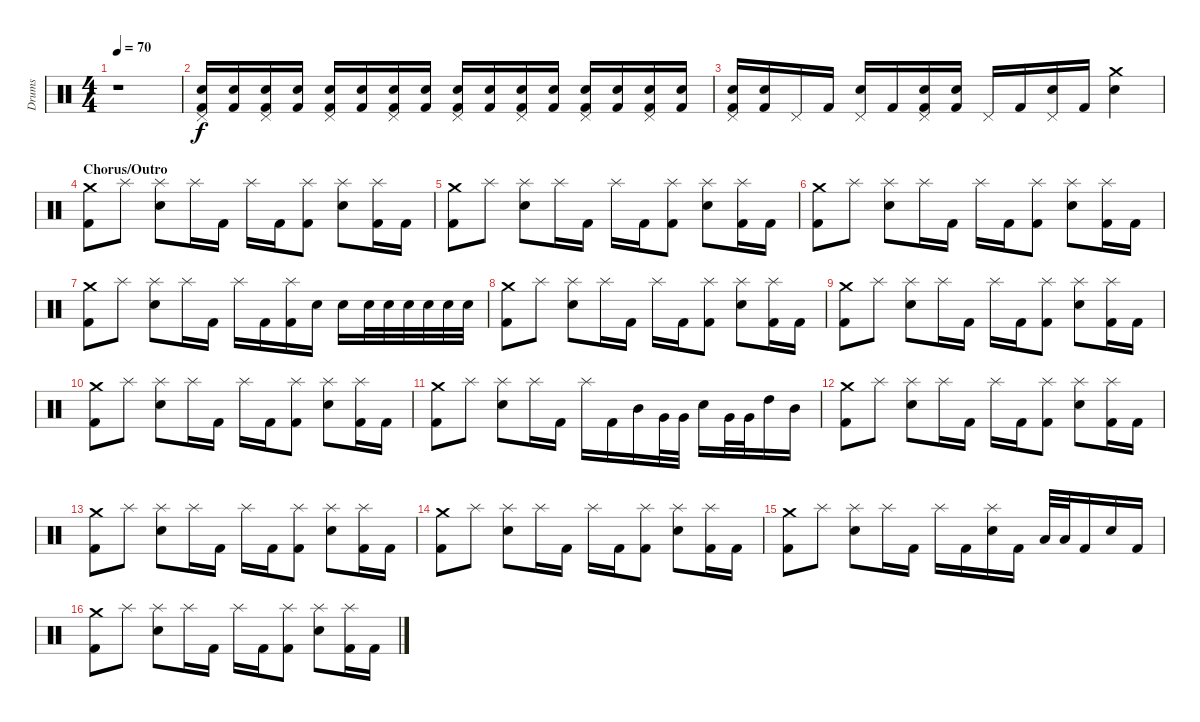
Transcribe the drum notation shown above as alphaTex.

\track ("Drums" "Drums") {instrument percussion}
\staff {score}
\articulation defaults
\ts (4 4)
\tempo 70
\clef neutral
\ks c
r.1{dy f volume 0} |
("Pedal Hi-Hat (hit)" "Electric Snare (hit)" "Kick (hit) 2").16{volume 13} ("Electric Snare (hit)" "Kick (hit) 2").16 ("Pedal Hi-Hat (hit)" "Electric Snare (hit)" "Kick (hit) 2").16 ("Electric Snare (hit)" "Kick (hit) 2").16 ("Pedal Hi-Hat (hit)" "Electric Snare (hit)" "Kick (hit) 2").16 ("Electric Snare (hit)" "Kick (hit) 2").16 ("Pedal Hi-Hat (hit)" "Electric Snare (hit)" "Kick (hit) 2").16 ("Electric Snare (hit)" "Kick (hit) 2").16 ("Pedal Hi-Hat (hit)" "Electric Snare (hit)" "Kick (hit) 2").16 ("Electric Snare (hit)" "Kick (hit) 2").16 ("Pedal Hi-Hat (hit)" "Electric Snare (hit)" "Kick (hit) 2").16 ("Electric Snare (hit)" "Kick (hit) 2").16 ("Pedal Hi-Hat (hit)" "Electric Snare (hit)" "Kick (hit) 2").16 ("Electric Snare (hit)" "Kick (hit) 2").16 ("Pedal Hi-Hat (hit)" "Electric Snare (hit)" "Kick (hit) 2").16 ("Electric Snare (hit)" "Kick (hit) 2").16 |
("Pedal Hi-Hat (hit)" "Electric Snare (hit)" "Kick (hit) 2").16 ("Electric Snare (hit)" "Kick (hit) 2").16 "Pedal Hi-Hat (hit)".16 "Kick (hit) 2".16 ("Pedal Hi-Hat (hit)" "Electric Snare (hit)").16 "Kick (hit) 2".16 ("Pedal Hi-Hat (hit)" "Electric Snare (hit)" "Kick (hit) 2").16 ("Electric Snare (hit)" "Kick (hit) 2").16 "Pedal Hi-Hat (hit)".16 "Kick (hit) 2".16 ("Pedal Hi-Hat (hit)" "Electric Snare (hit)").16 "Kick (hit) 2".16 ("Crash medium (hit)" "Electric Snare (hit)").4 |
\section ("" "Chorus/Outro")
("Crash medium (hit)" "Kick (hit) 2").8 "Splash (hit)".8 ("Splash (hit)" "Electric Snare (hit)").8 "Splash (hit)".16 "Kick (hit) 2".16 "Splash (hit)".16 "Kick (hit) 2".16 ("Splash (hit)" "Kick (hit) 2").8 ("Splash (hit)" "Electric Snare (hit)").8 ("Splash (hit)" "Kick (hit) 2").16 "Kick (hit) 2".16 |
("Crash medium (hit)" "Kick (hit) 2").8 "Splash (hit)".8 ("Splash (hit)" "Electric Snare (hit)").8 "Splash (hit)".16 "Kick (hit) 2".16 "Splash (hit)".16 "Kick (hit) 2".16 ("Splash (hit)" "Kick (hit) 2").8 ("Splash (hit)" "Electric Snare (hit)").8 ("Splash (hit)" "Kick (hit) 2").16 "Kick (hit) 2".16 |
("Crash medium (hit)" "Kick (hit) 2").8 "Splash (hit)".8 ("Splash (hit)" "Electric Snare (hit)").8 "Splash (hit)".16 "Kick (hit) 2".16 "Splash (hit)".16 "Kick (hit) 2".16 ("Splash (hit)" "Kick (hit) 2").8 ("Splash (hit)" "Electric Snare (hit)").8 ("Splash (hit)" "Kick (hit) 2").16 "Kick (hit) 2".16 |
("Crash medium (hit)" "Kick (hit) 2").8 "Splash (hit)".8 ("Splash (hit)" "Electric Snare (hit)").8 "Splash (hit)".16 "Kick (hit) 2".16 "Splash (hit)".16 "Kick (hit) 2".16 ("Splash (hit)" "Kick (hit) 2").16 "Electric Snare (hit)".16 "Electric Snare (hit)".16 "Electric Snare (hit)".32 "Electric Snare (hit)".32 "Electric Snare (hit)".32 "Electric Snare (hit)".32 "Electric Snare (hit)".32 "Electric Snare (hit)".32 |
("Crash medium (hit)" "Kick (hit) 2").8 "Splash (hit)".8 ("Splash (hit)" "Electric Snare (hit)").8 "Splash (hit)".16 "Kick (hit) 2".16 "Splash (hit)".16 "Kick (hit) 2".16 ("Splash (hit)" "Kick (hit) 2").8 ("Splash (hit)" "Electric Snare (hit)").8 ("Splash (hit)" "Kick (hit) 2").16 "Kick (hit) 2".16 |
("Crash medium (hit)" "Kick (hit) 2").8 "Splash (hit)".8 ("Splash (hit)" "Electric Snare (hit)").8 "Splash (hit)".16 "Kick (hit) 2".16 "Splash (hit)".16 "Kick (hit) 2".16 ("Splash (hit)" "Kick (hit) 2").8 ("Splash (hit)" "Electric Snare (hit)").8 ("Splash (hit)" "Kick (hit) 2").16 "Kick (hit) 2".16 |
("Crash medium (hit)" "Kick (hit) 2").8 "Splash (hit)".8 ("Splash (hit)" "Electric Snare (hit)").8 "Splash (hit)".16 "Kick (hit) 2".16 "Splash (hit)".16 "Kick (hit) 2".16 ("Splash (hit)" "Kick (hit) 2").8 ("Splash (hit)" "Electric Snare (hit)").8 ("Splash (hit)" "Kick (hit) 2").16 "Kick (hit) 2".16 |
("Crash medium (hit)" "Kick (hit) 2").8 "Splash (hit)".8 ("Splash (hit)" "Electric Snare (hit)").8 "Splash (hit)".16 "Kick (hit) 2".16 "Splash (hit)".16 "Kick (hit) 2".16 "Mid Tom (hit)".16 "Very Low Tom (hit)".32 "Very Low Tom (hit)".32 "Electric Snare (hit)".16 "Very Low Tom (hit)".32 "Very Low Tom (hit)".32 "High Tom (hit)".16 "Mid Tom (hit)".16 |
("Crash medium (hit)" "Kick (hit) 2").8 "Splash (hit)".8 ("Splash (hit)" "Electric Snare (hit)").8 "Splash (hit)".16 "Kick (hit) 2".16 "Splash (hit)".16 "Kick (hit) 2".16 ("Splash (hit)" "Kick (hit) 2").8 ("Splash (hit)" "Electric Snare (hit)").8 ("Splash (hit)" "Kick (hit) 2").16 "Kick (hit) 2".16 |
("Crash medium (hit)" "Kick (hit) 2").8 "Splash (hit)".8 ("Splash (hit)" "Electric Snare (hit)").8 "Splash (hit)".16 "Kick (hit) 2".16 "Splash (hit)".16 "Kick (hit) 2".16 ("Splash (hit)" "Kick (hit) 2").8 ("Splash (hit)" "Electric Snare (hit)").8 ("Splash (hit)" "Kick (hit) 2").16 "Kick (hit) 2".16 |
("Crash medium (hit)" "Kick (hit) 2").8 "Splash (hit)".8 ("Splash (hit)" "Electric Snare (hit)").8 "Splash (hit)".16 "Kick (hit) 2".16 "Splash (hit)".16 "Kick (hit) 2".16 ("Splash (hit)" "Kick (hit) 2").8 ("Splash (hit)" "Electric Snare (hit)").8 ("Splash (hit)" "Kick (hit) 2").16 "Kick (hit) 2".16 |
("Crash medium (hit)" "Kick (hit) 2").8 "Splash (hit)".8 ("Splash (hit)" "Electric Snare (hit)").8 "Splash (hit)".16 "Kick (hit) 2".16 "Splash (hit)".16 "Kick (hit) 2".16 ("Splash (hit)" "Electric Snare (hit)").16 "Kick (hit) 2".16 "Low Tom (hit)".32 "Low Tom (hit)".32 "Kick (hit) 2".16 "Electric Snare (hit)".16 "Kick (hit) 2".16 |
("Crash medium (hit)" "Kick (hit) 2").8 "Splash (hit)".8 ("Splash (hit)" "Electric Snare (hit)").8 "Splash (hit)".16 "Kick (hit) 2".16 "Splash (hit)".16 "Kick (hit) 2".16 ("Splash (hit)" "Kick (hit) 2").8 ("Splash (hit)" "Electric Snare (hit)").8 ("Splash (hit)" "Kick (hit) 2").16 "Kick (hit) 2".16
